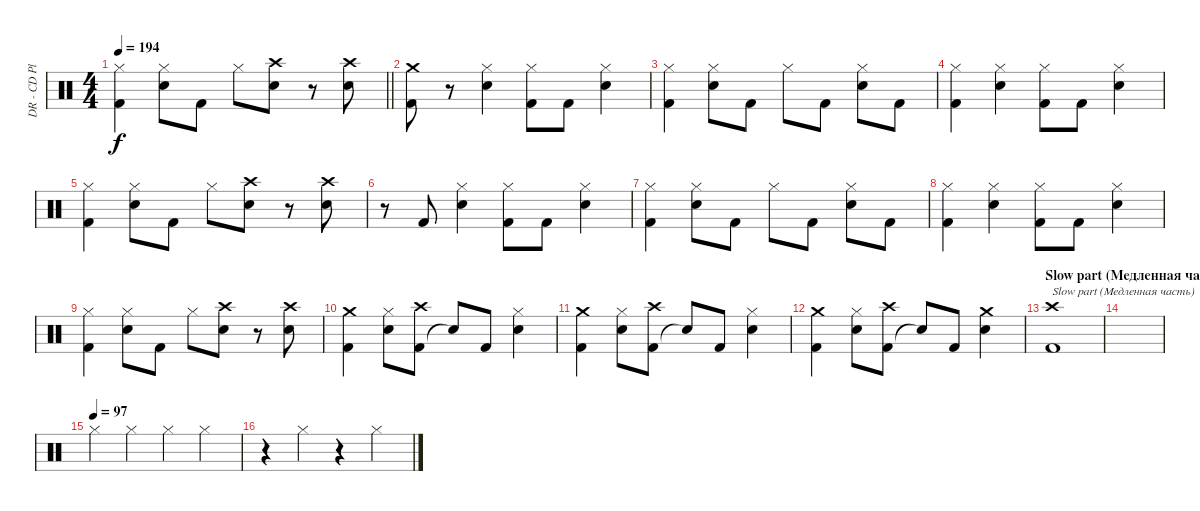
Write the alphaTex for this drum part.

\track ("DR - CD Player" "DR - CD Pl") {instrument percussion}
\staff {score}
\articulation defaults
\ts (4 4)
\tempo 194
\clef neutral
\barLineRight lightlight
\ks c
("Kick (hit) 2" "Hi-Hat (closed)").4{dy f} ("Snare (hit) 2" "Hi-Hat (closed)").8 "Kick (hit) 2".8 "Hi-Hat (closed)".8 ("Snare (hit) 2" "Crash high (hit)").8 r.8 ("Snare (hit) 2" "Crash high (hit)").8 |
("Kick (hit) 2" "Crash medium (hit)").8 r.8 ("Snare (hit) 2" "Hi-Hat (closed)").4 ("Kick (hit) 2" "Hi-Hat (closed)").8 "Kick (hit) 2".8 ("Snare (hit) 2" "Hi-Hat (closed)").4 |
("Kick (hit) 2" "Hi-Hat (closed)").4 ("Snare (hit) 2" "Hi-Hat (closed)").8 "Kick (hit) 2".8 "Hi-Hat (closed)".8 "Kick (hit) 2".8 ("Snare (hit) 2" "Hi-Hat (closed)").8 "Kick (hit) 2".8 |
("Kick (hit) 2" "Hi-Hat (closed)").4 ("Snare (hit) 2" "Hi-Hat (closed)").4 ("Kick (hit) 2" "Hi-Hat (closed)").8 "Kick (hit) 2".8 ("Snare (hit) 2" "Hi-Hat (closed)").4 |
("Kick (hit) 2" "Hi-Hat (closed)").4 ("Snare (hit) 2" "Hi-Hat (closed)").8 "Kick (hit) 2".8 "Hi-Hat (closed)".8 ("Snare (hit) 2" "Crash high (hit)").8 r.8 ("Snare (hit) 2" "Crash high (hit)").8 |
r.8 "Kick (hit) 2".8 ("Snare (hit) 2" "Hi-Hat (closed)").4 ("Kick (hit) 2" "Hi-Hat (closed)").8 "Kick (hit) 2".8 ("Snare (hit) 2" "Hi-Hat (closed)").4 |
("Kick (hit) 2" "Hi-Hat (closed)").4 ("Snare (hit) 2" "Hi-Hat (closed)").8 "Kick (hit) 2".8 "Hi-Hat (closed)".8 "Kick (hit) 2".8 ("Snare (hit) 2" "Hi-Hat (closed)").8 "Kick (hit) 2".8 |
("Kick (hit) 2" "Hi-Hat (closed)").4 ("Snare (hit) 2" "Hi-Hat (closed)").4 ("Kick (hit) 2" "Hi-Hat (closed)").8 "Kick (hit) 2".8 ("Snare (hit) 2" "Hi-Hat (closed)").4 |
("Kick (hit) 2" "Hi-Hat (closed)").4 ("Snare (hit) 2" "Hi-Hat (closed)").8 "Kick (hit) 2".8 "Hi-Hat (closed)".8 ("Snare (hit) 2" "Crash high (hit)").8 r.8 ("Snare (hit) 2" "Crash high (hit)").8 |
("Kick (hit) 2" "Crash medium (hit)").4 ("Snare (hit) 2" "Hi-Hat (closed)").8 ("Kick (hit) 2" "Crash high (hit)").8 "Snare (hit)"{t}.8 "Kick (hit) 2".8 ("Snare (hit) 2" "Hi-Hat (closed)").4 |
("Kick (hit) 2" "Crash medium (hit)").4 ("Snare (hit) 2" "Hi-Hat (closed)").8 ("Kick (hit) 2" "Crash high (hit)").8 "Snare (hit)"{t}.8 "Kick (hit) 2".8 ("Snare (hit) 2" "Hi-Hat (closed)").4 |
("Kick (hit) 2" "Crash medium (hit)").4 ("Snare (hit) 2" "Hi-Hat (closed)").8 ("Kick (hit) 2" "Crash high (hit)").8 "Snare (hit)"{t}.8 "Kick (hit) 2".8 ("Snare (hit) 2" "Crash medium (hit)").4 |
\section ("" "Slow part (Медленная часть)")
("Kick (hit) 2" "Crash high (hit)").1{txt "Slow part (Медленная часть)"} |
|
\tempo (97)
"Hi-Hat (closed)".4 "Hi-Hat (closed)".4 "Hi-Hat (closed)".4 "Hi-Hat (closed)".4 |
r.4 "Hi-Hat (closed)".4 r.4 "Hi-Hat (closed)".4
